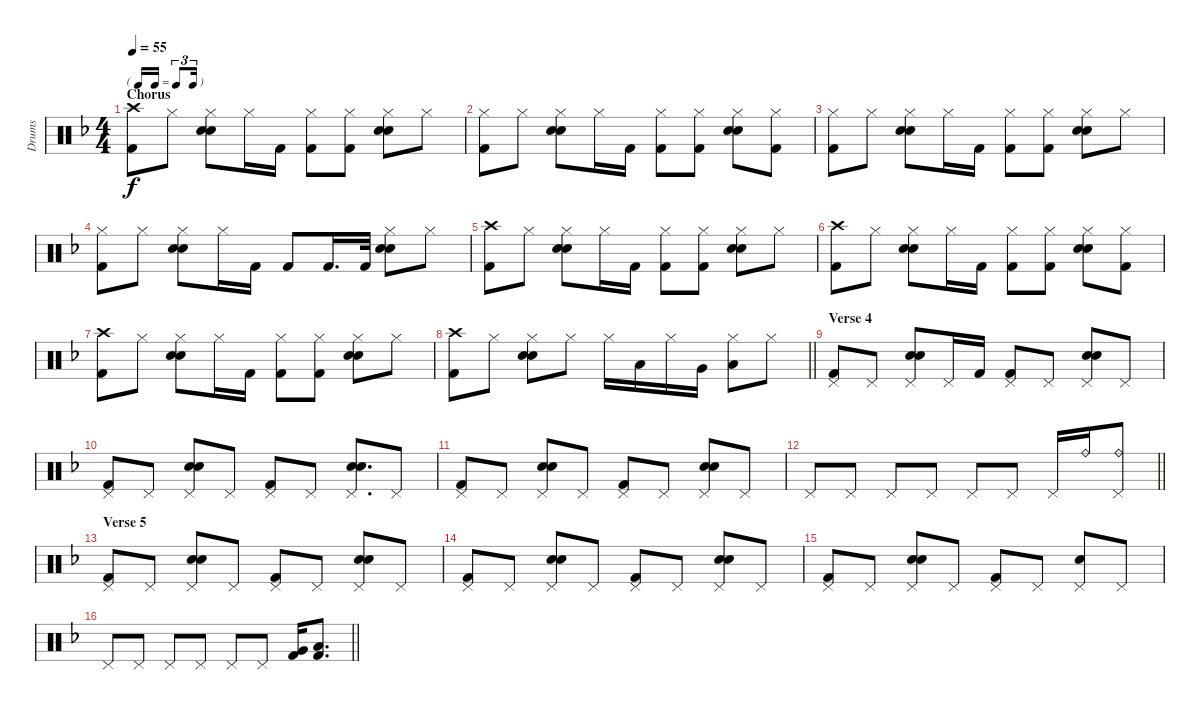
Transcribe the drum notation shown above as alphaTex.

\track ("Drums" "Drums") {instrument percussion}
\staff {score}
\articulation defaults
\ts (4 4)
\tf triplet16th
\section ("" "Chorus")
\tempo 55
\clef neutral
\ks dminor
("Crash high (hit)" "Kick (hit) 2").8{dy f} "Hi-Hat (closed)".8 ("Hi-Hat (closed)" "Snare (hit) 2" "Electric Snare (hit)").8 "Hi-Hat (closed)".16 "Kick (hit) 2".16 ("Hi-Hat (closed)" "Kick (hit) 2").8 ("Hi-Hat (closed)" "Kick (hit) 2").8 ("Hi-Hat (closed)" "Snare (hit) 2" "Electric Snare (hit)").8 "Hi-Hat (closed)".8 |
("Hi-Hat (closed)" "Kick (hit) 2").8 "Hi-Hat (closed)".8 ("Hi-Hat (closed)" "Snare (hit) 2" "Electric Snare (hit)").8 "Hi-Hat (closed)".16 "Kick (hit) 2".16 ("Hi-Hat (closed)" "Kick (hit) 2").8 ("Hi-Hat (closed)" "Kick (hit) 2").8 ("Hi-Hat (closed)" "Snare (hit) 2" "Electric Snare (hit)").8 ("Hi-Hat (closed)" "Kick (hit) 2").8 |
("Hi-Hat (closed)" "Kick (hit) 2").8 "Hi-Hat (closed)".8 ("Hi-Hat (closed)" "Snare (hit) 2" "Electric Snare (hit)").8 "Hi-Hat (closed)".16 "Kick (hit) 2".16 ("Hi-Hat (closed)" "Kick (hit) 2").8 ("Hi-Hat (closed)" "Kick (hit) 2").8 ("Hi-Hat (closed)" "Snare (hit) 2" "Electric Snare (hit)").8 "Hi-Hat (closed)".8 |
("Hi-Hat (closed)" "Kick (hit) 2").8 "Hi-Hat (closed)".8 ("Hi-Hat (closed)" "Snare (hit) 2" "Electric Snare (hit)").8 "Hi-Hat (closed)".16 "Kick (hit) 2".16 "Kick (hit) 2".8 "Kick (hit) 2".16{d} "Kick (hit) 2".32 ("Hi-Hat (closed)" "Snare (hit) 2" "Electric Snare (hit)").8 "Hi-Hat (closed)".8 |
("Crash high (hit)" "Kick (hit) 2").8 "Hi-Hat (closed)".8 ("Hi-Hat (closed)" "Snare (hit) 2" "Electric Snare (hit)").8 "Hi-Hat (closed)".16 "Kick (hit) 2".16 ("Hi-Hat (closed)" "Kick (hit) 2").8 ("Hi-Hat (closed)" "Kick (hit) 2").8 ("Hi-Hat (closed)" "Snare (hit) 2" "Electric Snare (hit)").8 "Hi-Hat (closed)".8 |
("Crash high (hit)" "Kick (hit) 2").8 "Hi-Hat (closed)".8 ("Hi-Hat (closed)" "Snare (hit) 2" "Electric Snare (hit)").8 "Hi-Hat (closed)".16 "Kick (hit) 2".16 ("Hi-Hat (closed)" "Kick (hit) 2").8 ("Hi-Hat (closed)" "Kick (hit) 2").8 ("Hi-Hat (closed)" "Snare (hit) 2" "Electric Snare (hit)").8 ("Hi-Hat (closed)" "Kick (hit) 2").8 |
("Crash high (hit)" "Kick (hit) 2").8 "Hi-Hat (closed)".8 ("Hi-Hat (closed)" "Snare (hit) 2" "Electric Snare (hit)").8 "Hi-Hat (closed)".16 "Kick (hit) 2".16 ("Hi-Hat (closed)" "Kick (hit) 2").8 ("Hi-Hat (closed)" "Kick (hit) 2").8 ("Hi-Hat (closed)" "Snare (hit) 2" "Electric Snare (hit)").8 "Hi-Hat (closed)".8 |
\barLineRight lightlight
("Crash high (hit)" "Kick (hit) 2").8 "Hi-Hat (closed)".8 ("Hi-Hat (closed)" "Snare (hit) 2" "Electric Snare (hit)").8 "Hi-Hat (closed)".8 "Hi-Hat (closed)".16 "Low Tom (hit)".16 "Hi-Hat (closed)".16 "Very Low Tom (hit)".16 ("Hi-Hat (closed)" "Low Floor Tom (hit)").8 "Hi-Hat (closed)".8 |
\section ("" "Verse 4")
("Pedal Hi-Hat (hit)" "Kick (hit) 2").8 "Pedal Hi-Hat (hit)".8 ("Pedal Hi-Hat (hit)" "Snare (hit) 2" "Electric Snare (hit)").8 "Pedal Hi-Hat (hit)".16 "Kick (hit) 2".16 ("Pedal Hi-Hat (hit)" "Kick (hit) 2").8 "Pedal Hi-Hat (hit)".8 ("Pedal Hi-Hat (hit)" "Snare (hit) 2" "Electric Snare (hit)").8 "Pedal Hi-Hat (hit)".8 |
("Pedal Hi-Hat (hit)" "Kick (hit) 2").8 "Pedal Hi-Hat (hit)".8 ("Pedal Hi-Hat (hit)" "Snare (hit) 2" "Electric Snare (hit)").8 "Pedal Hi-Hat (hit)".8 ("Pedal Hi-Hat (hit)" "Kick (hit) 2").8 "Pedal Hi-Hat (hit)".8 ("Pedal Hi-Hat (hit)" "Snare (hit) 2" "Electric Snare (hit)").8{d} "Pedal Hi-Hat (hit)".8 |
("Pedal Hi-Hat (hit)" "Kick (hit) 2").8 "Pedal Hi-Hat (hit)".8 ("Pedal Hi-Hat (hit)" "Snare (hit) 2" "Electric Snare (hit)").8 "Pedal Hi-Hat (hit)".8 ("Pedal Hi-Hat (hit)" "Kick (hit) 2").8 "Pedal Hi-Hat (hit)".8 ("Pedal Hi-Hat (hit)" "Snare (hit) 2" "Electric Snare (hit)").8 "Pedal Hi-Hat (hit)".8 |
\barLineRight lightlight "Pedal Hi-Hat (hit)".8 "Pedal Hi-Hat (hit)".8 "Pedal Hi-Hat (hit)".8 "Pedal Hi-Hat (hit)".8 "Pedal Hi-Hat (hit)".8 "Pedal Hi-Hat (hit)".8 "Pedal Hi-Hat (hit)".16 "Ride (bell)".16
("Pedal Hi-Hat (hit)" "Ride (bell)").8 |
\section ("" "Verse 5")
("Pedal Hi-Hat (hit)" "Kick (hit) 2").8 "Pedal Hi-Hat (hit)".8 ("Pedal Hi-Hat (hit)" "Snare (hit) 2" "Electric Snare (hit)").8 "Pedal Hi-Hat (hit)".8 ("Pedal Hi-Hat (hit)" "Kick (hit) 2").8 "Pedal Hi-Hat (hit)".8 ("Pedal Hi-Hat (hit)" "Snare (hit) 2" "Electric Snare (hit)").8 "Pedal Hi-Hat (hit)".8 |
("Pedal Hi-Hat (hit)" "Kick (hit) 2").8 "Pedal Hi-Hat (hit)".8 ("Pedal Hi-Hat (hit)" "Snare (hit) 2" "Electric Snare (hit)").8 "Pedal Hi-Hat (hit)".8 ("Pedal Hi-Hat (hit)" "Kick (hit) 2").8 "Pedal Hi-Hat (hit)".8 ("Pedal Hi-Hat (hit)" "Snare (hit) 2" "Electric Snare (hit)").8 "Pedal Hi-Hat (hit)".8 |
("Pedal Hi-Hat (hit)" "Kick (hit) 2").8 "Pedal Hi-Hat (hit)".8 ("Pedal Hi-Hat (hit)" "Snare (hit) 2" "Electric Snare (hit)").8 "Pedal Hi-Hat (hit)".8 ("Pedal Hi-Hat (hit)" "Kick (hit) 2").8 "Pedal Hi-Hat (hit)".8 ("Pedal Hi-Hat (hit)" "Electric Snare (hit)").8 "Pedal Hi-Hat (hit)".8 |
\barLineRight lightlight "Pedal Hi-Hat (hit)".8 "Pedal Hi-Hat (hit)".8 "Pedal Hi-Hat (hit)".8 "Pedal Hi-Hat (hit)".8 "Pedal Hi-Hat (hit)".8 "Pedal Hi-Hat (hit)".8
("Very Low Tom (hit)" "Kick (hit) 2").16 ("Low Floor Tom (hit)" "Kick (hit) 2").8{d}
